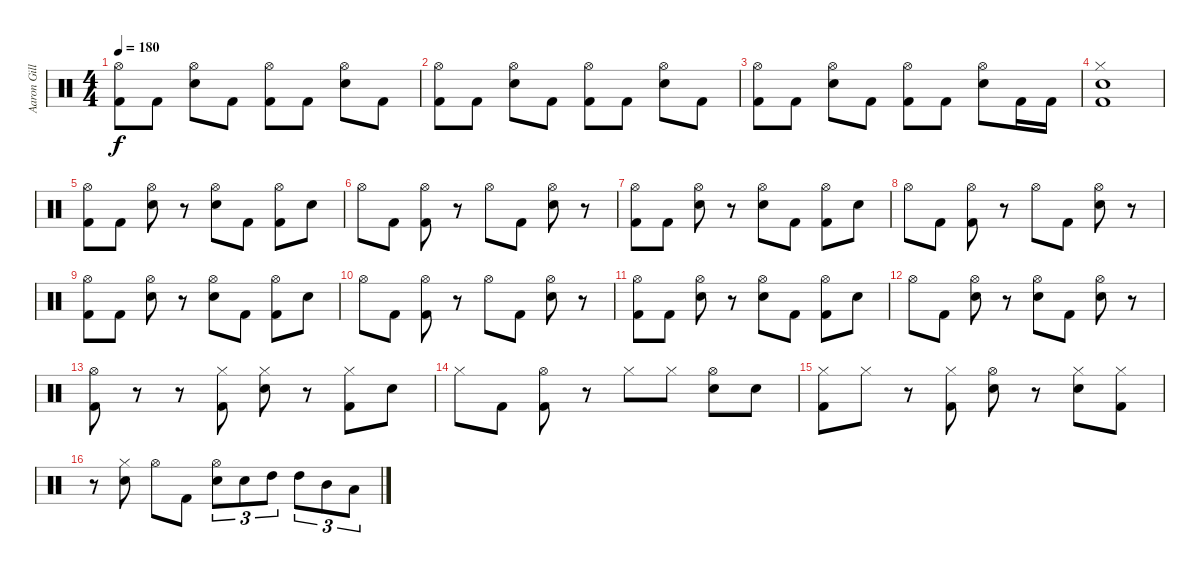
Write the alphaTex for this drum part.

\track ("Aaron Gillespie 1" "Aaron Gill") {instrument percussion}
\staff {score}
\articulation defaults
\ts (4 4)
\tempo 180
\clef neutral
\ks c
("Hi-Hat (open)" "Kick (hit) 2").8{dy f} "Kick (hit) 2".8 ("Hi-Hat (open)" "Snare (hit) 2").8 "Kick (hit) 2".8 ("Hi-Hat (open)" "Kick (hit) 2").8 "Kick (hit) 2".8 ("Hi-Hat (open)" "Snare (hit) 2").8 "Kick (hit) 2".8 |
("Hi-Hat (open)" "Kick (hit) 2").8 "Kick (hit) 2".8 ("Hi-Hat (open)" "Snare (hit) 2").8 "Kick (hit) 2".8 ("Hi-Hat (open)" "Kick (hit) 2").8 "Kick (hit) 2".8 ("Hi-Hat (open)" "Snare (hit) 2").8 "Kick (hit) 2".8 |
("Hi-Hat (open)" "Kick (hit) 2").8 "Kick (hit) 2".8 ("Hi-Hat (open)" "Snare (hit) 2").8 "Kick (hit) 2".8 ("Hi-Hat (open)" "Kick (hit) 2").8 "Kick (hit) 2".8 ("Hi-Hat (open)" "Snare (hit) 2").8 "Kick (hit) 2".16 "Kick (hit) 2".16 |
("Hi-Hat (closed)" "Snare (hit) 2" "Kick (hit) 2").1 |
("Hi-Hat (open)" "Kick (hit) 2").8 "Kick (hit) 2".8 ("Hi-Hat (open)" "Snare (hit) 2").8 r.8 ("Hi-Hat (open)" "Snare (hit) 2").8 "Kick (hit) 2".8 ("Hi-Hat (open)" "Kick (hit) 2").8 "Snare (hit) 2".8 |
"Hi-Hat (open)".8 "Kick (hit) 2".8 ("Hi-Hat (open)" "Kick (hit) 2").8 r.8 "Hi-Hat (open)".8 "Kick (hit) 2".8 ("Hi-Hat (open)" "Snare (hit) 2").8 r.8 |
("Hi-Hat (open)" "Kick (hit) 2").8 "Kick (hit) 2".8 ("Hi-Hat (open)" "Snare (hit) 2").8 r.8 ("Hi-Hat (open)" "Snare (hit) 2").8 "Kick (hit) 2".8 ("Hi-Hat (open)" "Kick (hit) 2").8 "Snare (hit) 2".8 |
"Hi-Hat (open)".8 "Kick (hit) 2".8 ("Hi-Hat (open)" "Kick (hit) 2").8 r.8 "Hi-Hat (open)".8 "Kick (hit) 2".8 ("Hi-Hat (open)" "Snare (hit) 2").8 r.8 |
("Hi-Hat (open)" "Kick (hit) 2").8 "Kick (hit) 2".8 ("Hi-Hat (open)" "Snare (hit) 2").8 r.8 ("Hi-Hat (open)" "Snare (hit) 2").8 "Kick (hit) 2".8 ("Hi-Hat (open)" "Kick (hit) 2").8 "Snare (hit) 2".8 |
"Hi-Hat (open)".8 "Kick (hit) 2".8 ("Hi-Hat (open)" "Kick (hit) 2").8 r.8 "Hi-Hat (open)".8 "Kick (hit) 2".8 ("Hi-Hat (open)" "Snare (hit) 2").8 r.8 |
("Hi-Hat (open)" "Kick (hit) 2").8 "Kick (hit) 2".8 ("Hi-Hat (open)" "Snare (hit) 2").8 r.8 ("Hi-Hat (open)" "Snare (hit) 2").8 "Kick (hit) 2".8 ("Hi-Hat (open)" "Kick (hit) 2").8 "Snare (hit) 2".8 |
"Hi-Hat (open)".8 "Kick (hit) 2".8 ("Hi-Hat (open)" "Snare (hit) 2").8 r.8 ("Hi-Hat (open)" "Snare (hit) 2").8 "Kick (hit) 2".8 ("Hi-Hat (open)" "Snare (hit) 2").8 r.8 |
("Hi-Hat (open)" "Kick (hit) 2").8 r.8 r.8 ("Hi-Hat (closed)" "Kick (hit) 2").8 ("Hi-Hat (closed)" "Snare (hit) 2").8 r.8 ("Hi-Hat (closed)" "Kick (hit) 2").8 "Snare (hit) 2".8 |
"Hi-Hat (closed)".8 "Kick (hit) 2".8 ("Hi-Hat (open)" "Kick (hit) 2").8 r.8 "Hi-Hat (closed)".8 "Hi-Hat (closed)".8 ("Hi-Hat (open)" "Snare (hit) 2").8 "Snare (hit) 2".8 |
("Hi-Hat (closed)" "Kick (hit) 2").8 "Hi-Hat (closed)".8 r.8 ("Hi-Hat (closed)" "Kick (hit) 2").8 ("Hi-Hat (open)" "Snare (hit) 2").8 r.8 ("Hi-Hat (closed)" "Snare (hit) 2").8 ("Hi-Hat (closed)" "Kick (hit) 2").8 |
r.8 ("Hi-Hat (closed)" "Snare (hit) 2").8 "Hi-Hat (open)".8 "Kick (hit) 2".8 ("Hi-Hat (open)" "Snare (hit) 2").8{tu (3 2)} "Snare (hit) 2".8{tu (3 2)} "High Tom (hit)".8{tu (3 2)} "High Tom (hit)".8{tu (3 2)} "Mid Tom (hit)".8{tu (3 2)} "Low Tom (hit)".8{tu (3 2)}
